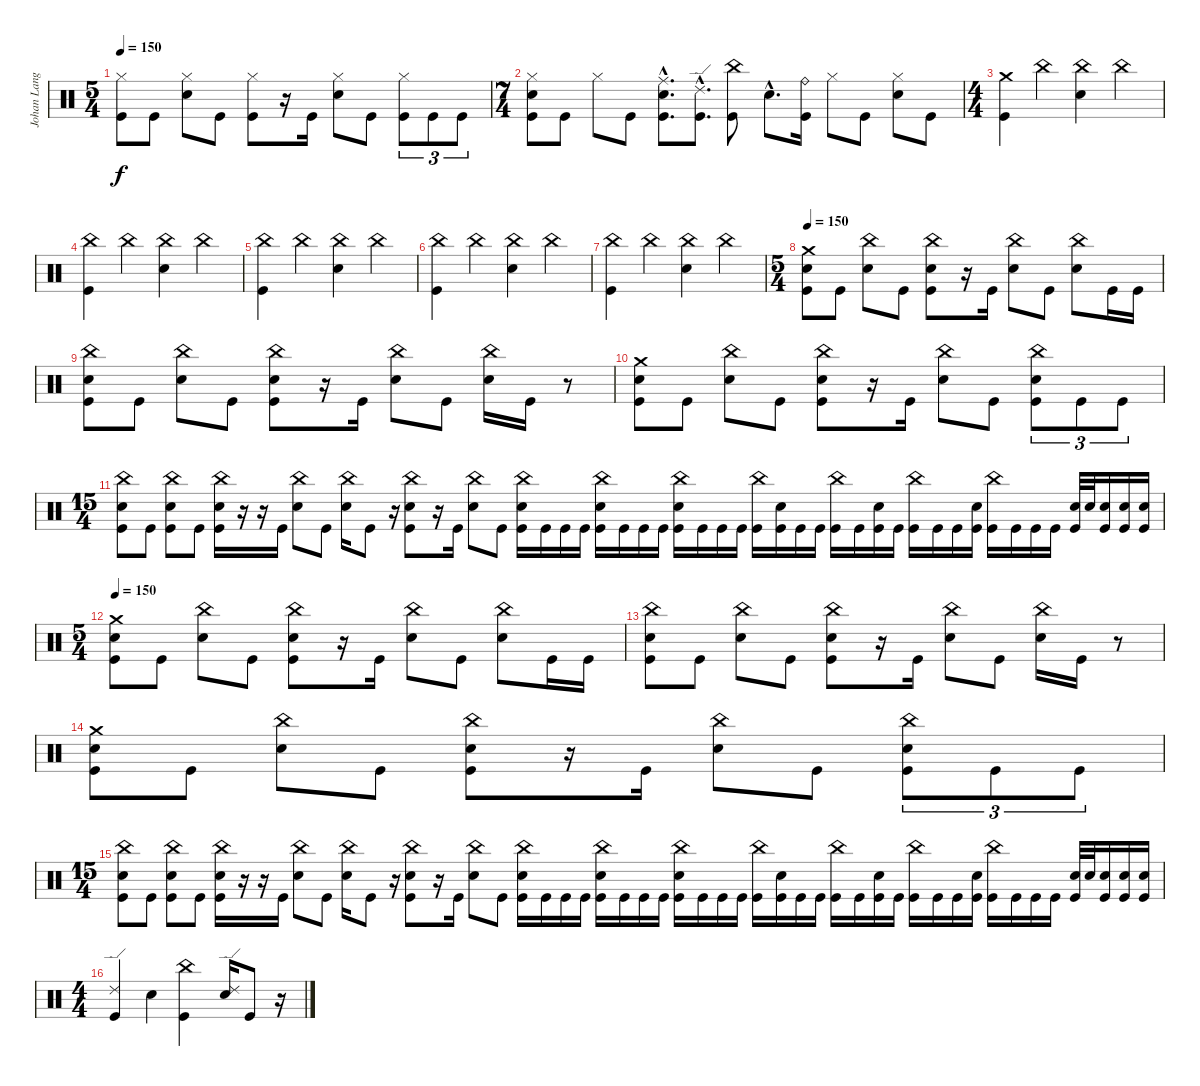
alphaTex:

\track ("Johan Langell" "Johan Lang") {instrument percussion}
\staff {score}
\articulation defaults
\ts (5 4)
\tempo 150
\clef neutral
\ks c
("Hi-Hat (closed)" "Kick (hit)").8{dy f} "Kick (hit)".8 ("Hi-Hat (closed)" "Electric Snare (hit)").8 "Kick (hit)".8 ("Hi-Hat (closed)" "Kick (hit)").8 r.16 "Kick (hit)".16 ("Hi-Hat (closed)" "Electric Snare (hit)").8 "Kick (hit)".8 ("Hi-Hat (closed)" "Kick (hit)").8{tu (3 2)} "Kick (hit)".8{tu (3 2)} "Kick (hit)".8{tu (3 2)} |
\ts (7 4)
("Hi-Hat (closed)" "Electric Snare (hit)" "Kick (hit)").8 "Kick (hit)".8 "Hi-Hat (closed)".8 "Kick (hit)".8 ("Ride (middle)"{hac} "Electric Snare (hit)"{hac} "Kick (hit)"{hac}).8{d} ("Ride (edge) 2"{hac} "Kick (hit)"{hac}).8{d} ("China (hit)" "Kick (hit)").8 "Electric Snare (hit)"{hac}.8{d} ("Ride (bell)" "Kick (hit)").16 "Hi-Hat (closed)".8 "Kick (hit)".8 ("Hi-Hat (closed)" "Electric Snare (hit)").8 "Kick (hit)".8 |
\ts (4 4)
("Crash medium (hit)" "Kick (hit)").4 "China (hit)".4 ("China (hit)" "Electric Snare (hit)").4 "China (hit)".4 |
("China (hit)" "Kick (hit)").4 "China (hit)".4 ("China (hit)" "Electric Snare (hit)").4 "China (hit)".4 |
("China (hit)" "Kick (hit)").4 "China (hit)".4 ("China (hit)" "Electric Snare (hit)").4 "China (hit)".4 |
("China (hit)" "Kick (hit)").4 "China (hit)".4 ("China (hit)" "Electric Snare (hit)").4 "China (hit)".4 |
("China (hit)" "Kick (hit)").4 "China (hit)".4 ("China (hit)" "Electric Snare (hit)").4 "China (hit)".4 |
\ts (5 4)
\tempo 150
("Crash medium (hit)" "Electric Snare (hit)" "Kick (hit)").8 "Kick (hit)".8 ("China (hit)" "Electric Snare (hit)").8 "Kick (hit)".8 ("China (hit)" "Electric Snare (hit)" "Kick (hit)").8 r.16 "Kick (hit)".16 ("China (hit)" "Electric Snare (hit)").8 "Kick (hit)".8 ("China (hit)" "Electric Snare (hit)").8 "Kick (hit)".16 "Kick (hit)".16 |
("China (hit)" "Electric Snare (hit)" "Kick (hit)").8 "Kick (hit)".8 ("China (hit)" "Electric Snare (hit)").8 "Kick (hit)".8 ("China (hit)" "Electric Snare (hit)" "Kick (hit)").8 r.16 "Kick (hit)".16 ("China (hit)" "Electric Snare (hit)").8 "Kick (hit)".8 ("China (hit)" "Electric Snare (hit)").16 "Kick (hit)".16 r.8 |
("Crash medium (hit)" "Electric Snare (hit)" "Kick (hit)").8 "Kick (hit)".8 ("China (hit)" "Electric Snare (hit)").8 "Kick (hit)".8 ("China (hit)" "Electric Snare (hit)" "Kick (hit)").8 r.16 "Kick (hit)".16 ("China (hit)" "Electric Snare (hit)").8 "Kick (hit)".8 ("China (hit)" "Electric Snare (hit)" "Kick (hit)").8{tu (3 2)} "Kick (hit)".8{tu (3 2)} "Kick (hit)".8{tu (3 2)} |
\ts (15 4)
("China (hit)" "Electric Snare (hit)" "Kick (hit)").8 "Kick (hit)".8 ("China (hit)" "Electric Snare (hit)" "Kick (hit)").8 "Kick (hit)".8 ("China (hit)" "Electric Snare (hit)" "Kick (hit)").16 r.16 r.16 "Kick (hit)".16 ("China (hit)" "Electric Snare (hit)").8 "Kick (hit)".8 ("China (hit)" "Electric Snare (hit)").16 "Kick (hit)".8 r.16 ("China (hit)" "Electric Snare (hit)" "Kick (hit)").8 r.16 "Kick (hit)".16 ("China (hit)" "Electric Snare (hit)").8 "Kick (hit)".8 ("China (hit)" "Electric Snare (hit)" "Kick (hit)").16 "Kick (hit)".16 "Kick (hit)".16 "Kick (hit)".16 ("China (hit)" "Electric Snare (hit)" "Kick (hit)").16 "Kick (hit)".16 "Kick (hit)".16 "Kick (hit)".16 ("China (hit)" "Electric Snare (hit)" "Kick (hit)").16 "Kick (hit)".16 "Kick (hit)".16 "Kick (hit)".16 ("China (hit)" "Kick (hit)").16 ("Electric Snare (hit)" "Kick (hit)").16 "Kick (hit)".16 "Kick (hit)".16 ("China (hit)" "Kick (hit)").16 "Kick (hit)".16 ("Electric Snare (hit)" "Kick (hit)").16 "Kick (hit)".16 ("China (hit)" "Kick (hit)").16 "Kick (hit)".16 "Kick (hit)".16 ("Electric Snare (hit)" "Kick (hit)").16 ("China (hit)" "Kick (hit)").16 "Kick (hit)".16 "Kick (hit)".16 "Kick (hit)".16 ("Electric Snare (hit)" "Kick (hit)").32 "Electric Snare (hit)".32 ("Electric Snare (hit)" "Kick (hit)").16 ("Electric Snare (hit)" "Kick (hit)").16 ("Electric Snare (hit)" "Kick (hit)").16 |
\ts (5 4)
\tempo 150
("Crash medium (hit)" "Electric Snare (hit)" "Kick (hit)").8 "Kick (hit)".8 ("China (hit)" "Electric Snare (hit)").8 "Kick (hit)".8 ("China (hit)" "Electric Snare (hit)" "Kick (hit)").8 r.16 "Kick (hit)".16 ("China (hit)" "Electric Snare (hit)").8 "Kick (hit)".8 ("China (hit)" "Electric Snare (hit)").8 "Kick (hit)".16 "Kick (hit)".16 |
("China (hit)" "Electric Snare (hit)" "Kick (hit)").8 "Kick (hit)".8 ("China (hit)" "Electric Snare (hit)").8 "Kick (hit)".8 ("China (hit)" "Electric Snare (hit)" "Kick (hit)").8 r.16 "Kick (hit)".16 ("China (hit)" "Electric Snare (hit)").8 "Kick (hit)".8 ("China (hit)" "Electric Snare (hit)").16 "Kick (hit)".16 r.8 |
("Crash medium (hit)" "Electric Snare (hit)" "Kick (hit)").8 "Kick (hit)".8 ("China (hit)" "Electric Snare (hit)").8 "Kick (hit)".8 ("China (hit)" "Electric Snare (hit)" "Kick (hit)").8 r.16 "Kick (hit)".16 ("China (hit)" "Electric Snare (hit)").8 "Kick (hit)".8 ("China (hit)" "Electric Snare (hit)" "Kick (hit)").8{tu (3 2)} "Kick (hit)".8{tu (3 2)} "Kick (hit)".8{tu (3 2)} |
\ts (15 4)
("China (hit)" "Electric Snare (hit)" "Kick (hit)").8 "Kick (hit)".8 ("China (hit)" "Electric Snare (hit)" "Kick (hit)").8 "Kick (hit)".8 ("China (hit)" "Electric Snare (hit)" "Kick (hit)").16 r.16 r.16 "Kick (hit)".16 ("China (hit)" "Electric Snare (hit)").8 "Kick (hit)".8 ("China (hit)" "Electric Snare (hit)").16 "Kick (hit)".8 r.16 ("China (hit)" "Electric Snare (hit)" "Kick (hit)").8 r.16 "Kick (hit)".16 ("China (hit)" "Electric Snare (hit)").8 "Kick (hit)".8 ("China (hit)" "Electric Snare (hit)" "Kick (hit)").16 "Kick (hit)".16 "Kick (hit)".16 "Kick (hit)".16 ("China (hit)" "Electric Snare (hit)" "Kick (hit)").16 "Kick (hit)".16 "Kick (hit)".16 "Kick (hit)".16 ("China (hit)" "Electric Snare (hit)" "Kick (hit)").16 "Kick (hit)".16 "Kick (hit)".16 "Kick (hit)".16 ("China (hit)" "Kick (hit)").16 ("Electric Snare (hit)" "Kick (hit)").16 "Kick (hit)".16 "Kick (hit)".16 ("China (hit)" "Kick (hit)").16 "Kick (hit)".16 ("Electric Snare (hit)" "Kick (hit)").16 "Kick (hit)".16 ("China (hit)" "Kick (hit)").16 "Kick (hit)".16 "Kick (hit)".16 ("Electric Snare (hit)" "Kick (hit)").16 ("China (hit)" "Kick (hit)").16 "Kick (hit)".16 "Kick (hit)".16 "Kick (hit)".16 ("Electric Snare (hit)" "Kick (hit)").32 "Electric Snare (hit)".32 ("Electric Snare (hit)" "Kick (hit)").16 ("Electric Snare (hit)" "Kick (hit)").16 ("Electric Snare (hit)" "Kick (hit)").16 |
\ts (4 4)
("Ride (edge) 2" "Kick (hit)").4 "Electric Snare (hit)".4 ("China (hit)" "Kick (hit)").4 ("Ride (edge) 2" "Electric Snare (hit)").16 "Kick (hit)".8 r.16
